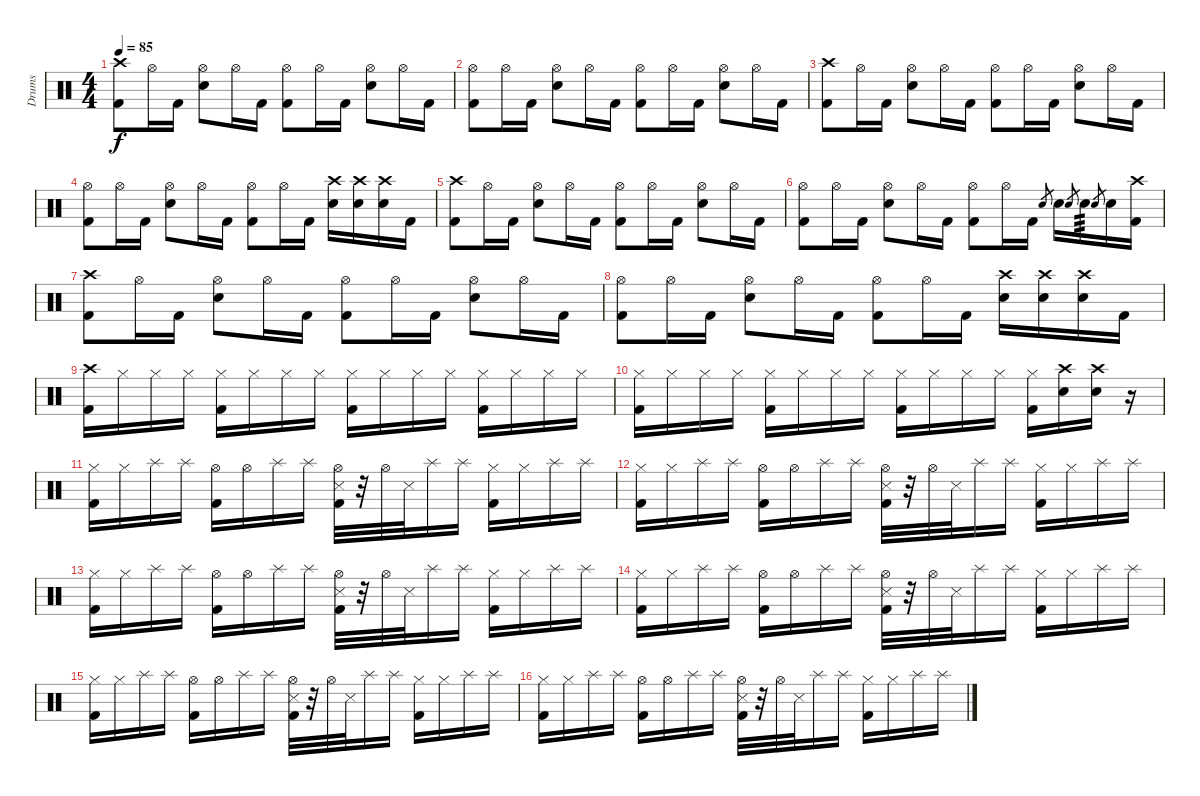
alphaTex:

\track ("Drums" "Drums") {instrument percussion}
\staff {score}
\articulation defaults
\ts (4 4)
\tempo 85
\clef neutral
\ks c
("Crash high (hit)" "Kick (hit) 2").8{dy f} "Hi-Hat (open)".16 "Kick (hit) 2".16 ("Hi-Hat (open)" "Electric Snare (hit)").8 "Hi-Hat (open)".16 "Kick (hit) 2".16 ("Hi-Hat (open)" "Kick (hit) 2").8 "Hi-Hat (open)".16 "Kick (hit) 2".16 ("Hi-Hat (open)" "Electric Snare (hit)").8 "Hi-Hat (open)".16 "Kick (hit) 2".16 |
("Hi-Hat (open)" "Kick (hit) 2").8 "Hi-Hat (open)".16 "Kick (hit) 2".16 ("Hi-Hat (open)" "Electric Snare (hit)").8 "Hi-Hat (open)".16 "Kick (hit) 2".16 ("Hi-Hat (open)" "Kick (hit) 2").8 "Hi-Hat (open)".16 "Kick (hit) 2".16 ("Hi-Hat (open)" "Electric Snare (hit)").8 "Hi-Hat (open)".16 "Kick (hit) 2".16 |
("Crash high (hit)" "Kick (hit) 2").8 "Hi-Hat (open)".16 "Kick (hit) 2".16 ("Hi-Hat (open)" "Electric Snare (hit)").8 "Hi-Hat (open)".16 "Kick (hit) 2".16 ("Hi-Hat (open)" "Kick (hit) 2").8 "Hi-Hat (open)".16 "Kick (hit) 2".16 ("Hi-Hat (open)" "Electric Snare (hit)").8 "Hi-Hat (open)".16 "Kick (hit) 2".16 |
("Hi-Hat (open)" "Kick (hit) 2").8 "Hi-Hat (open)".16 "Kick (hit) 2".16 ("Hi-Hat (open)" "Electric Snare (hit)").8 "Hi-Hat (open)".16 "Kick (hit) 2".16 ("Hi-Hat (open)" "Kick (hit) 2").8 "Hi-Hat (open)".16 "Kick (hit) 2".16 ("Crash high (hit)" "Electric Snare (hit)").16 ("Crash high (hit)" "Electric Snare (hit)").16 ("Crash high (hit)" "Electric Snare (hit)").16 "Kick (hit) 2".16 |
("Crash high (hit)" "Kick (hit) 2").8 "Hi-Hat (open)".16 "Kick (hit) 2".16 ("Hi-Hat (open)" "Electric Snare (hit)").8 "Hi-Hat (open)".16 "Kick (hit) 2".16 ("Hi-Hat (open)" "Kick (hit) 2").8 "Hi-Hat (open)".16 "Kick (hit) 2".16 ("Hi-Hat (open)" "Electric Snare (hit)").8 "Hi-Hat (open)".16 "Kick (hit) 2".16 |
("Hi-Hat (open)" "Kick (hit) 2").8 "Hi-Hat (open)".16 "Kick (hit) 2".16 ("Hi-Hat (open)" "Electric Snare (hit)").8 "Hi-Hat (open)".16 "Kick (hit) 2".16 ("Hi-Hat (open)" "Kick (hit) 2").8 "Hi-Hat (open)".16 "Kick (hit) 2".16 "Electric Snare (hit)".8{gr} "Electric Snare (hit)".16 "Electric Snare (hit)".8{gr} "Electric Snare (hit)".16{tp 3} "Electric Snare (hit)".8{gr} "Electric Snare (hit)".16 ("Crash high (hit)" "Kick (hit) 2").16 |
("Crash high (hit)" "Kick (hit) 2").8 "Hi-Hat (open)".16 "Kick (hit) 2".16 ("Hi-Hat (open)" "Electric Snare (hit)").8 "Hi-Hat (open)".16 "Kick (hit) 2".16 ("Hi-Hat (open)" "Kick (hit) 2").8 "Hi-Hat (open)".16 "Kick (hit) 2".16 ("Hi-Hat (open)" "Electric Snare (hit)").8 "Hi-Hat (open)".16 "Kick (hit) 2".16 |
("Hi-Hat (open)" "Kick (hit) 2").8 "Hi-Hat (open)".16 "Kick (hit) 2".16 ("Hi-Hat (open)" "Electric Snare (hit)").8 "Hi-Hat (open)".16 "Kick (hit) 2".16 ("Hi-Hat (open)" "Kick (hit) 2").8 "Hi-Hat (open)".16 "Kick (hit) 2".16 ("Crash high (hit)" "Electric Snare (hit)").16 ("Crash high (hit)" "Electric Snare (hit)").16 ("Crash high (hit)" "Electric Snare (hit)").16 "Kick (hit) 2".16 |
("Crash high (hit)" "Kick (hit) 2").16 "Hi-Hat (closed)".16 "Hi-Hat (closed)".16 "Hi-Hat (closed)".16 ("Hi-Hat (closed)" "Kick (hit) 2").16 "Hi-Hat (closed)".16 "Hi-Hat (closed)".16 "Hi-Hat (closed)".16 ("Hi-Hat (closed)" "Kick (hit) 2").16 "Hi-Hat (closed)".16 "Hi-Hat (closed)".16 "Hi-Hat (closed)".16 ("Hi-Hat (closed)" "Kick (hit) 2").16 "Hi-Hat (closed)".16 "Hi-Hat (closed)".16 "Hi-Hat (closed)".16 |
("Hi-Hat (closed)" "Kick (hit) 2").16 "Hi-Hat (closed)".16 "Hi-Hat (closed)".16 "Hi-Hat (closed)".16 ("Hi-Hat (closed)" "Kick (hit) 2").16 "Hi-Hat (closed)".16 "Hi-Hat (closed)".16 "Hi-Hat (closed)".16 ("Hi-Hat (closed)" "Kick (hit) 2").16 "Hi-Hat (closed)".16 "Hi-Hat (closed)".16 "Hi-Hat (closed)".16 ("Hi-Hat (closed)" "Kick (hit) 2").16 ("Crash high (hit)" "Electric Snare (hit)").16 ("Crash high (hit)" "Electric Snare (hit)").16 r.16 |
("Hi-Hat (closed)" "Kick (hit) 2").16 "Hi-Hat (closed)".16 "Splash (hit)".16 "Splash (hit)".16 ("Hi-Hat (open)" "Kick (hit) 2").16 "Hi-Hat (open)".16 "Splash (hit)".16 "Splash (hit)".16 ("Hi-Hat (open)" "Snare (side stick) 3" "Kick (hit) 2").32 r.32 "Hi-Hat (open)".32 "Snare (side stick) 3".32 "Splash (hit)".16 "Splash (hit)".16 ("Hi-Hat (closed)" "Kick (hit) 2").16 "Hi-Hat (closed)".16 "Splash (hit)".16 "Splash (hit)".16 |
("Hi-Hat (closed)" "Kick (hit) 2").16 "Hi-Hat (closed)".16 "Splash (hit)".16 "Splash (hit)".16 ("Hi-Hat (open)" "Kick (hit) 2").16 "Hi-Hat (open)".16 "Splash (hit)".16 "Splash (hit)".16 ("Hi-Hat (open)" "Snare (side stick) 3" "Kick (hit) 2").32 r.32 "Hi-Hat (open)".32 "Snare (side stick) 3".32 "Splash (hit)".16 "Splash (hit)".16 ("Hi-Hat (closed)" "Kick (hit) 2").16 "Hi-Hat (closed)".16 "Splash (hit)".16 "Splash (hit)".16 |
("Hi-Hat (closed)" "Kick (hit) 2").16 "Hi-Hat (closed)".16 "Splash (hit)".16 "Splash (hit)".16 ("Hi-Hat (open)" "Kick (hit) 2").16 "Hi-Hat (open)".16 "Splash (hit)".16 "Splash (hit)".16 ("Hi-Hat (open)" "Snare (side stick) 3" "Kick (hit) 2").32 r.32 "Hi-Hat (open)".32 "Snare (side stick) 3".32 "Splash (hit)".16 "Splash (hit)".16 ("Hi-Hat (closed)" "Kick (hit) 2").16 "Hi-Hat (closed)".16 "Splash (hit)".16 "Splash (hit)".16 |
("Hi-Hat (closed)" "Kick (hit) 2").16 "Hi-Hat (closed)".16 "Splash (hit)".16 "Splash (hit)".16 ("Hi-Hat (open)" "Kick (hit) 2").16 "Hi-Hat (open)".16 "Splash (hit)".16 "Splash (hit)".16 ("Hi-Hat (open)" "Snare (side stick) 3" "Kick (hit) 2").32 r.32 "Hi-Hat (open)".32 "Snare (side stick) 3".32 "Splash (hit)".16 "Splash (hit)".16 ("Hi-Hat (closed)" "Kick (hit) 2").16 "Hi-Hat (closed)".16 "Splash (hit)".16 "Splash (hit)".16 |
("Hi-Hat (closed)" "Kick (hit) 2").16 "Hi-Hat (closed)".16 "Splash (hit)".16 "Splash (hit)".16 ("Hi-Hat (open)" "Kick (hit) 2").16 "Hi-Hat (open)".16 "Splash (hit)".16 "Splash (hit)".16 ("Hi-Hat (open)" "Snare (side stick) 3" "Kick (hit) 2").32 r.32 "Hi-Hat (open)".32 "Snare (side stick) 3".32 "Splash (hit)".16 "Splash (hit)".16 ("Hi-Hat (closed)" "Kick (hit) 2").16 "Hi-Hat (closed)".16 "Splash (hit)".16 "Splash (hit)".16 |
("Hi-Hat (closed)" "Kick (hit) 2").16 "Hi-Hat (closed)".16 "Splash (hit)".16 "Splash (hit)".16 ("Hi-Hat (open)" "Kick (hit) 2").16 "Hi-Hat (open)".16 "Splash (hit)".16 "Splash (hit)".16 ("Hi-Hat (open)" "Snare (side stick) 3" "Kick (hit) 2").32 r.32 "Hi-Hat (open)".32 "Snare (side stick) 3".32 "Splash (hit)".16 "Splash (hit)".16 ("Hi-Hat (closed)" "Kick (hit) 2").16 "Hi-Hat (closed)".16 "Splash (hit)".16 "Splash (hit)".16
